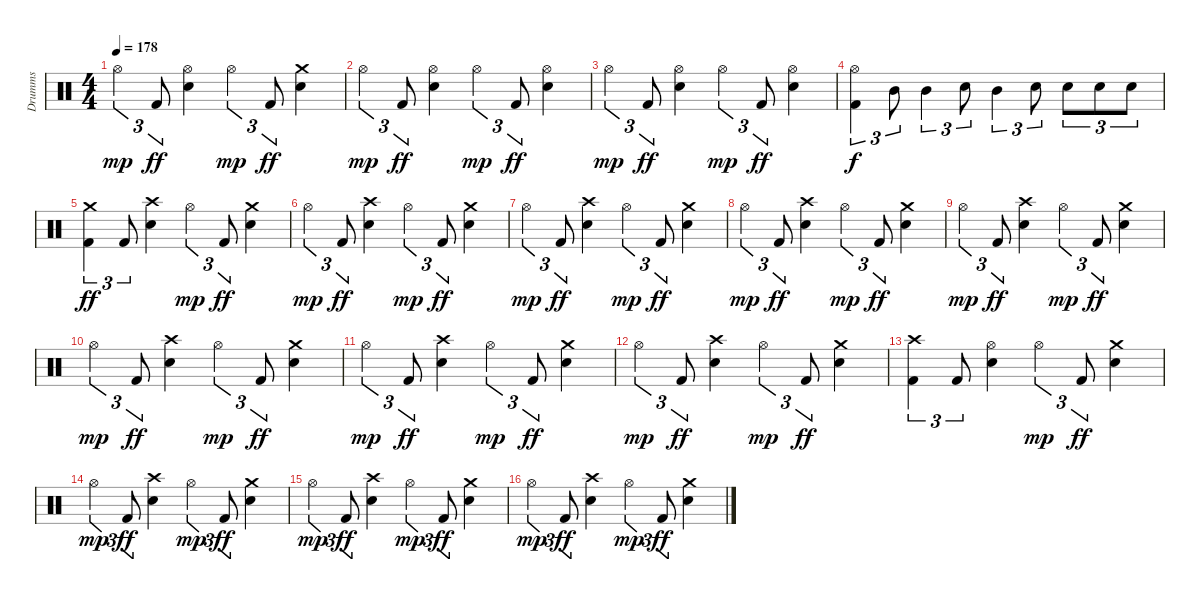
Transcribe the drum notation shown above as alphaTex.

\track ("Drumms" "Drumms") {instrument percussion}
\staff {score}
\articulation defaults
\ts (4 4)
\tempo 178
\clef neutral
\ks c "Hi-Hat (open)".4{tu (3 2) dy mp} "Kick (hit) 2".8{tu (3 2) dy ff}
("Hi-Hat (open)" "Electric Snare (hit)").4 "Hi-Hat (open)".4{tu (3 2) dy mp} "Kick (hit) 2".8{tu (3 2) dy ff} ("Crash medium (hit)" "Electric Snare (hit)").4 |
"Hi-Hat (open)".4{tu (3 2) dy mp} "Kick (hit) 2".8{tu (3 2) dy ff} ("Hi-Hat (open)" "Electric Snare (hit)").4 "Hi-Hat (open)".4{tu (3 2) dy mp} "Kick (hit) 2".8{tu (3 2) dy ff} ("Hi-Hat (open)" "Electric Snare (hit)").4 |
"Hi-Hat (open)".4{tu (3 2) dy mp} "Kick (hit) 2".8{tu (3 2) dy ff} ("Hi-Hat (open)" "Electric Snare (hit)").4 "Hi-Hat (open)".4{tu (3 2) dy mp} "Kick (hit) 2".8{tu (3 2) dy ff} ("Hi-Hat (open)" "Electric Snare (hit)").4 |
("Hi-Hat (open)" "Kick (hit) 2").4{tu (3 2) dy f} "Mid Tom (hit)".8{tu (3 2)} "Mid Tom (hit)".4{tu (3 2)} "Electric Snare (hit)".8{tu (3 2)} "Mid Tom (hit)".4{tu (3 2)} "Electric Snare (hit)".8{tu (3 2)} "Electric Snare (hit)".8{tu (3 2)} "Electric Snare (hit)".8{tu (3 2)} "Electric Snare (hit)".8{tu (3 2)} |
("Crash medium (hit)" "Kick (hit) 2").4{tu (3 2) dy ff} "Kick (hit) 2".8{tu (3 2)} ("Crash high (hit)" "Electric Snare (hit)").4 "Hi-Hat (open)".4{tu (3 2) dy mp} "Kick (hit) 2".8{tu (3 2) dy ff} ("Crash medium (hit)" "Electric Snare (hit)").4 |
"Hi-Hat (open)".4{tu (3 2) dy mp} "Kick (hit) 2".8{tu (3 2) dy ff} ("Crash high (hit)" "Electric Snare (hit)").4 "Hi-Hat (open)".4{tu (3 2) dy mp} "Kick (hit) 2".8{tu (3 2) dy ff} ("Crash medium (hit)" "Electric Snare (hit)").4 |
"Hi-Hat (open)".4{tu (3 2) dy mp} "Kick (hit) 2".8{tu (3 2) dy ff} ("Crash high (hit)" "Electric Snare (hit)").4 "Hi-Hat (open)".4{tu (3 2) dy mp} "Kick (hit) 2".8{tu (3 2) dy ff} ("Crash medium (hit)" "Electric Snare (hit)").4 |
"Hi-Hat (open)".4{tu (3 2) dy mp} "Kick (hit) 2".8{tu (3 2) dy ff} ("Crash high (hit)" "Electric Snare (hit)").4 "Hi-Hat (open)".4{tu (3 2) dy mp} "Kick (hit) 2".8{tu (3 2) dy ff} ("Crash medium (hit)" "Electric Snare (hit)").4 |
"Hi-Hat (open)".4{tu (3 2) dy mp} "Kick (hit) 2".8{tu (3 2) dy ff} ("Crash high (hit)" "Electric Snare (hit)").4 "Hi-Hat (open)".4{tu (3 2) dy mp} "Kick (hit) 2".8{tu (3 2) dy ff} ("Crash medium (hit)" "Electric Snare (hit)").4 |
"Hi-Hat (open)".4{tu (3 2) dy mp} "Kick (hit) 2".8{tu (3 2) dy ff} ("Crash high (hit)" "Electric Snare (hit)").4 "Hi-Hat (open)".4{tu (3 2) dy mp} "Kick (hit) 2".8{tu (3 2) dy ff} ("Crash medium (hit)" "Electric Snare (hit)").4 |
"Hi-Hat (open)".4{tu (3 2) dy mp} "Kick (hit) 2".8{tu (3 2) dy ff} ("Crash high (hit)" "Electric Snare (hit)").4 "Hi-Hat (open)".4{tu (3 2) dy mp} "Kick (hit) 2".8{tu (3 2) dy ff} ("Crash medium (hit)" "Electric Snare (hit)").4 |
"Hi-Hat (open)".4{tu (3 2) dy mp} "Kick (hit) 2".8{tu (3 2) dy ff} ("Crash high (hit)" "Electric Snare (hit)").4 "Hi-Hat (open)".4{tu (3 2) dy mp} "Kick (hit) 2".8{tu (3 2) dy ff} ("Crash medium (hit)" "Electric Snare (hit)").4 |
("Crash high (hit)" "Kick (hit) 2").4{tu (3 2)} "Kick (hit) 2".8{tu (3 2)} ("Hi-Hat (open)" "Electric Snare (hit)").4 "Hi-Hat (open)".4{tu (3 2) dy mp} "Kick (hit) 2".8{tu (3 2) dy ff} ("Crash medium (hit)" "Electric Snare (hit)").4 |
"Hi-Hat (open)".4{tu (3 2) dy mp} "Kick (hit) 2".8{tu (3 2) dy ff} ("Crash high (hit)" "Electric Snare (hit)").4 "Hi-Hat (open)".4{tu (3 2) dy mp} "Kick (hit) 2".8{tu (3 2) dy ff} ("Crash medium (hit)" "Electric Snare (hit)").4 |
"Hi-Hat (open)".4{tu (3 2) dy mp} "Kick (hit) 2".8{tu (3 2) dy ff} ("Crash high (hit)" "Electric Snare (hit)").4 "Hi-Hat (open)".4{tu (3 2) dy mp} "Kick (hit) 2".8{tu (3 2) dy ff} ("Crash medium (hit)" "Electric Snare (hit)").4 |
"Hi-Hat (open)".4{tu (3 2) dy mp} "Kick (hit) 2".8{tu (3 2) dy ff} ("Crash high (hit)" "Electric Snare (hit)").4 "Hi-Hat (open)".4{tu (3 2) dy mp} "Kick (hit) 2".8{tu (3 2) dy ff} ("Crash medium (hit)" "Electric Snare (hit)").4
